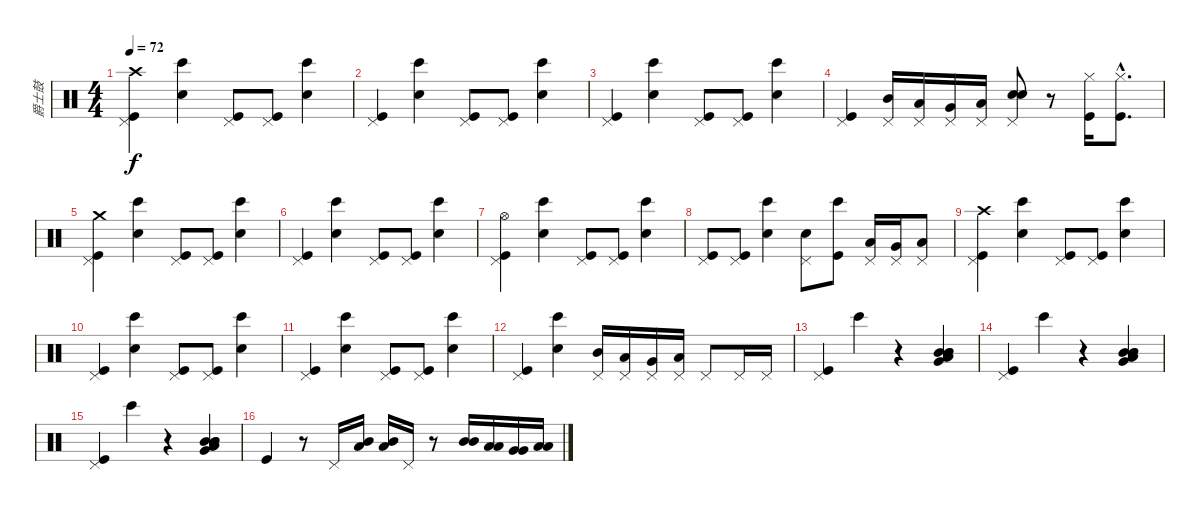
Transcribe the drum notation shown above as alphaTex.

\track ("爵士鼓" "爵士鼓") {instrument percussion}
\staff {score}
\articulation defaults
\ts (4 4)
\tempo 72
\clef neutral
\ks c
("Pedal Hi-Hat (hit)" "Kick (hit)" "Crash high (hit)").4{dy f} ("Bongo High (hit)" "Electric Snare (hit)").4 ("Pedal Hi-Hat (hit)" "Kick (hit)").8 ("Pedal Hi-Hat (hit)" "Kick (hit)").8 ("Bongo High (hit)" "Electric Snare (hit)").4 |
("Pedal Hi-Hat (hit)" "Kick (hit)").4 ("Bongo High (hit)" "Electric Snare (hit)").4 ("Pedal Hi-Hat (hit)" "Kick (hit)").8 ("Pedal Hi-Hat (hit)" "Kick (hit)").8 ("Bongo High (hit)" "Electric Snare (hit)").4 |
("Pedal Hi-Hat (hit)" "Kick (hit)").4 ("Bongo High (hit)" "Electric Snare (hit)").4 ("Pedal Hi-Hat (hit)" "Kick (hit)").8 ("Pedal Hi-Hat (hit)" "Kick (hit)").8 ("Bongo High (hit)" "Electric Snare (hit)").4 |
("Pedal Hi-Hat (hit)" "Kick (hit)").4 ("Pedal Hi-Hat (hit)" "Mid Tom (hit)").16 ("Pedal Hi-Hat (hit)" "Low Tom (hit)").16 ("Pedal Hi-Hat (hit)" "Very Low Tom (hit)").16 ("Pedal Hi-Hat (hit)" "Low Floor Tom (hit)").16 ("Pedal Hi-Hat (hit)" "Electric Snare (hit)" "Hand Clap (hit)").8 r.8 ("Hi-Hat (closed)" "Kick (hit)").16 ("Hi-Hat (closed)"{hac} "Kick (hit)"{hac}).8{d} |
("Pedal Hi-Hat (hit)" "Kick (hit)" "Crash medium (hit)").4 ("Bongo High (hit)" "Electric Snare (hit)").4 ("Pedal Hi-Hat (hit)" "Kick (hit)").8 ("Pedal Hi-Hat (hit)" "Kick (hit)").8 ("Bongo High (hit)" "Electric Snare (hit)").4 |
("Pedal Hi-Hat (hit)" "Kick (hit)").4 ("Bongo High (hit)" "Electric Snare (hit)").4 ("Pedal Hi-Hat (hit)" "Kick (hit)").8 ("Pedal Hi-Hat (hit)" "Kick (hit)").8 ("Bongo High (hit)" "Electric Snare (hit)").4 |
("Pedal Hi-Hat (hit)" "Kick (hit)" "Hi-Hat (open)").4 ("Bongo High (hit)" "Electric Snare (hit)").4 ("Pedal Hi-Hat (hit)" "Kick (hit)").8 ("Pedal Hi-Hat (hit)" "Kick (hit)").8 ("Bongo High (hit)" "Electric Snare (hit)").4 |
("Pedal Hi-Hat (hit)" "Kick (hit)").8 ("Pedal Hi-Hat (hit)" "Kick (hit)").8 ("Bongo High (hit)" "Electric Snare (hit)").4 ("Pedal Hi-Hat (hit)" "Snare (hit) 2").8 ("Bongo High (hit)" "Kick (hit)").8 ("Pedal Hi-Hat (hit)" "Low Tom (hit)").16 ("Pedal Hi-Hat (hit)" "Very Low Tom (hit)").16 ("Pedal Hi-Hat (hit)" "Low Floor Tom (hit)").8 |
("Pedal Hi-Hat (hit)" "Kick (hit)" "Crash high (hit)").4 ("Bongo High (hit)" "Electric Snare (hit)").4 ("Pedal Hi-Hat (hit)" "Kick (hit)").8 ("Pedal Hi-Hat (hit)" "Kick (hit)").8 ("Bongo High (hit)" "Electric Snare (hit)").4 |
("Pedal Hi-Hat (hit)" "Kick (hit)").4 ("Bongo High (hit)" "Electric Snare (hit)").4 ("Pedal Hi-Hat (hit)" "Kick (hit)").8 ("Pedal Hi-Hat (hit)" "Kick (hit)").8 ("Bongo High (hit)" "Electric Snare (hit)").4 |
("Pedal Hi-Hat (hit)" "Kick (hit)").4 ("Bongo High (hit)" "Electric Snare (hit)").4 ("Pedal Hi-Hat (hit)" "Kick (hit)").8 ("Pedal Hi-Hat (hit)" "Kick (hit)").8 ("Bongo High (hit)" "Electric Snare (hit)").4 |
("Pedal Hi-Hat (hit)" "Kick (hit)").4 ("Bongo High (hit)" "Electric Snare (hit)").4 ("Pedal Hi-Hat (hit)" "Mid Tom (hit)").16 ("Pedal Hi-Hat (hit)" "Low Tom (hit)").16 ("Pedal Hi-Hat (hit)" "Very Low Tom (hit)").16 ("Pedal Hi-Hat (hit)" "Low Floor Tom (hit)").16 "Pedal Hi-Hat (hit)".8 "Pedal Hi-Hat (hit)".16 "Pedal Hi-Hat (hit)".16 |
("Kick (hit)" "Pedal Hi-Hat (hit)").4 "Bongo High (hit)".4 r.4 ("Mid Tom (hit)" "Mid Tom (hit)" "Low Tom (hit)" "Very Low Tom (hit)" "Mid Tom (hit)").4 |
("Kick (hit)" "Pedal Hi-Hat (hit)").4 "Bongo High (hit)".4 r.4 ("Mid Tom (hit)" "Mid Tom (hit)" "Low Tom (hit)" "Very Low Tom (hit)" "Mid Tom (hit)").4 |
("Kick (hit)" "Pedal Hi-Hat (hit)").4 "Bongo High (hit)".4 r.4 ("Mid Tom (hit)" "Mid Tom (hit)" "Low Tom (hit)" "Very Low Tom (hit)" "Mid Tom (hit)").4 |
"Kick (hit)".4 r.8 "Pedal Hi-Hat (hit)".16 ("Mid Tom (hit)" "Low Tom (hit)").16 ("Mid Tom (hit)" "Low Tom (hit)").16 "Pedal Hi-Hat (hit)".16 r.8 ("Mid Tom (hit)" "Mid Tom (hit)").16 ("Low Tom (hit)" "Low Tom (hit)").16 ("Very Low Tom (hit)" "Very Low Tom (hit)").16 ("Low Floor Tom (hit)" "Low Floor Tom (hit)").16
